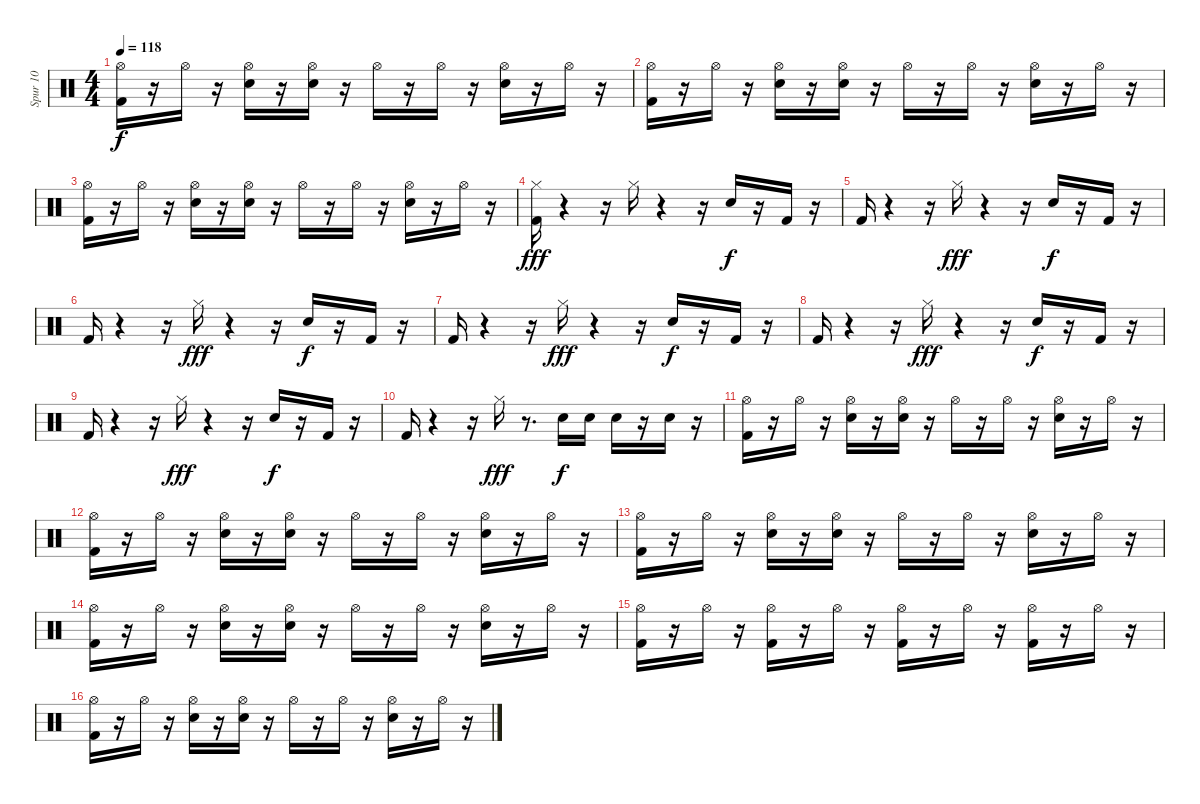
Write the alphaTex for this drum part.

\track ("Spur 10" "Spur 10") {instrument percussion}
\staff {score}
\articulation defaults
\ts (4 4)
\tempo 118
\clef neutral
\ks c
("Hi-Hat (open)" "Kick (hit) 2").16{dy f} r.16 "Hi-Hat (open)".16 r.16 ("Hi-Hat (open)" "Snare (hit) 2").16 r.16 ("Hi-Hat (open)" "Snare (hit) 2").16 r.16 "Hi-Hat (open)".16 r.16 "Hi-Hat (open)".16 r.16 ("Hi-Hat (open)" "Snare (hit) 2").16 r.16 "Hi-Hat (open)".16 r.16 |
("Hi-Hat (open)" "Kick (hit) 2").16 r.16 "Hi-Hat (open)".16 r.16 ("Hi-Hat (open)" "Snare (hit) 2").16 r.16 ("Hi-Hat (open)" "Snare (hit) 2").16 r.16 "Hi-Hat (open)".16 r.16 "Hi-Hat (open)".16 r.16 ("Hi-Hat (open)" "Snare (hit) 2").16 r.16 "Hi-Hat (open)".16 r.16 |
("Hi-Hat (open)" "Kick (hit) 2").16 r.16 "Hi-Hat (open)".16 r.16 ("Hi-Hat (open)" "Snare (hit) 2").16 r.16 ("Hi-Hat (open)" "Snare (hit) 2").16 r.16 "Hi-Hat (open)".16 r.16 "Hi-Hat (open)".16 r.16 ("Hi-Hat (open)" "Snare (hit) 2").16 r.16 "Hi-Hat (open)".16 r.16 |
("Hi-Hat (closed)" "Kick (hit) 2").16{dy fff} r.4 r.16 "Hi-Hat (closed)".16 r.4 r.16 "Snare (hit) 2".16{dy f} r.16 "Kick (hit) 2".16 r.16 |
"Kick (hit) 2".16 r.4 r.16 "Hi-Hat (closed)".16{dy fff} r.4 r.16 "Snare (hit) 2".16{dy f} r.16 "Kick (hit) 2".16 r.16 |
"Kick (hit) 2".16 r.4 r.16 "Hi-Hat (closed)".16{dy fff} r.4 r.16 "Snare (hit) 2".16{dy f} r.16 "Kick (hit) 2".16 r.16 |
"Kick (hit) 2".16 r.4 r.16 "Hi-Hat (closed)".16{dy fff} r.4 r.16 "Snare (hit) 2".16{dy f} r.16 "Kick (hit) 2".16 r.16 |
"Kick (hit) 2".16 r.4 r.16 "Hi-Hat (closed)".16{dy fff} r.4 r.16 "Snare (hit) 2".16{dy f} r.16 "Kick (hit) 2".16 r.16 |
"Kick (hit) 2".16 r.4 r.16 "Hi-Hat (closed)".16{dy fff} r.4 r.16 "Snare (hit) 2".16{dy f} r.16 "Kick (hit) 2".16 r.16 |
"Kick (hit) 2".16 r.4 r.16 "Hi-Hat (closed)".16{dy fff} r.8{d} "Snare (hit) 2".16{dy f} "Snare (hit) 2".16 "Snare (hit) 2".16 r.16 "Snare (hit) 2".16 r.16 |
("Hi-Hat (open)" "Kick (hit) 2").16 r.16 "Hi-Hat (open)".16 r.16 ("Hi-Hat (open)" "Snare (hit) 2").16 r.16 ("Hi-Hat (open)" "Snare (hit) 2").16 r.16 "Hi-Hat (open)".16 r.16 "Hi-Hat (open)".16 r.16 ("Hi-Hat (open)" "Snare (hit) 2").16 r.16 "Hi-Hat (open)".16 r.16 |
("Hi-Hat (open)" "Kick (hit) 2").16 r.16 "Hi-Hat (open)".16 r.16 ("Hi-Hat (open)" "Snare (hit) 2").16 r.16 ("Hi-Hat (open)" "Snare (hit) 2").16 r.16 "Hi-Hat (open)".16 r.16 "Hi-Hat (open)".16 r.16 ("Hi-Hat (open)" "Snare (hit) 2").16 r.16 "Hi-Hat (open)".16 r.16 |
("Hi-Hat (open)" "Kick (hit) 2").16 r.16 "Hi-Hat (open)".16 r.16 ("Hi-Hat (open)" "Snare (hit) 2").16 r.16 ("Hi-Hat (open)" "Snare (hit) 2").16 r.16 "Hi-Hat (open)".16 r.16 "Hi-Hat (open)".16 r.16 ("Hi-Hat (open)" "Snare (hit) 2").16 r.16 "Hi-Hat (open)".16 r.16 |
("Hi-Hat (open)" "Kick (hit) 2").16 r.16 "Hi-Hat (open)".16 r.16 ("Hi-Hat (open)" "Snare (hit) 2").16 r.16 ("Hi-Hat (open)" "Snare (hit) 2").16 r.16 "Hi-Hat (open)".16 r.16 "Hi-Hat (open)".16 r.16 ("Hi-Hat (open)" "Snare (hit) 2").16 r.16 "Hi-Hat (open)".16 r.16 |
("Kick (hit) 2" "Hi-Hat (open)").16 r.16 "Hi-Hat (open)".16 r.16 ("Hi-Hat (open)" "Kick (hit) 2").16 r.16 "Hi-Hat (open)".16 r.16 ("Hi-Hat (open)" "Kick (hit) 2").16 r.16 "Hi-Hat (open)".16 r.16 ("Hi-Hat (open)" "Kick (hit) 2").16 r.16 "Hi-Hat (open)".16 r.16 |
("Hi-Hat (open)" "Kick (hit) 2").16 r.16 "Hi-Hat (open)".16 r.16 ("Hi-Hat (open)" "Snare (hit) 2").16 r.16 ("Hi-Hat (open)" "Snare (hit) 2").16 r.16 "Hi-Hat (open)".16 r.16 "Hi-Hat (open)".16 r.16 ("Hi-Hat (open)" "Snare (hit) 2").16 r.16 "Hi-Hat (open)".16 r.16
